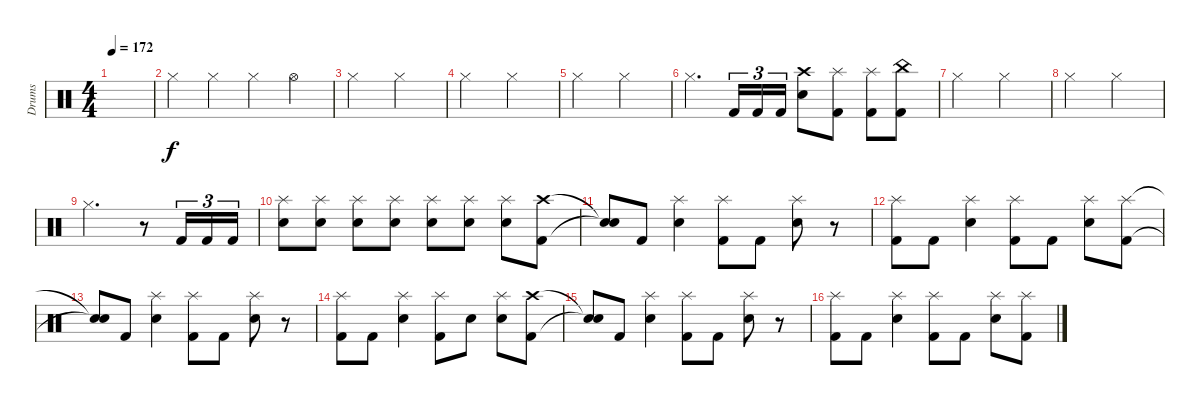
\track ("Drums" "Drums") {instrument percussion}
\staff {score}
\articulation defaults
\ts (4 4)
\tempo 172
\clef neutral
\ks c
|
"Hi-Hat (closed)".4 "Hi-Hat (closed)".4 "Hi-Hat (closed)".4 "Hi-Hat (open)".4 |
"Hi-Hat (closed)".2 "Hi-Hat (closed)".2 |
"Hi-Hat (closed)".2 "Hi-Hat (closed)".2 |
"Hi-Hat (closed)".2 "Hi-Hat (closed)".2 |
"Hi-Hat (closed)".4{d} "Kick (hit) 2".16{tu (3 2)} "Kick (hit) 2".16{tu (3 2)} "Kick (hit) 2".16{tu (3 2)} ("Crash high (hit)" "Electric Snare (hit)").8 ("Splash (hit)" "Kick (hit) 2").8 ("Splash (hit)" "Kick (hit) 2").8 ("China (hit)" "Kick (hit) 2").8 |
"Hi-Hat (closed)".2 "Hi-Hat (closed)".2 |
"Hi-Hat (closed)".2 "Hi-Hat (closed)".2 |
"Hi-Hat (closed)".2{d} r.8 "Kick (hit) 2".16{tu (3 2)} "Kick (hit) 2".16{tu (3 2)} "Kick (hit) 2".16{tu (3 2)} |
("Splash (hit)" "Electric Snare (hit)").8 ("Splash (hit)" "Electric Snare (hit)").8 ("Splash (hit)" "Electric Snare (hit)").8 ("Splash (hit)" "Electric Snare (hit)").8 ("Splash (hit)" "Electric Snare (hit)").8 ("Splash (hit)" "Electric Snare (hit)").8 ("Splash (hit)" "Electric Snare (hit)").8 ("Crash high (hit)" "Kick (hit) 2").8 |
("Snare (hit)"{t} "Snare (hit)"{t}).8 "Kick (hit) 2".8 ("Splash (hit)" "Electric Snare (hit)").4 ("Splash (hit)" "Kick (hit) 2").8 "Kick (hit) 2".8 ("Splash (hit)" "Electric Snare (hit)").8 r.8 |
("Splash (hit)" "Kick (hit) 2").8 "Kick (hit) 2".8 ("Splash (hit)" "Electric Snare (hit)").4 ("Splash (hit)" "Kick (hit) 2").8 "Kick (hit) 2".8 ("Splash (hit)" "Electric Snare (hit)").8 ("Splash (hit)" "Kick (hit) 2").8 |
("Snare (hit)"{t} "Snare (hit)"{t}).8 "Kick (hit) 2".8 ("Splash (hit)" "Electric Snare (hit)").4 ("Splash (hit)" "Kick (hit) 2").8 "Kick (hit) 2".8 ("Splash (hit)" "Electric Snare (hit)").8 r.8 |
("Splash (hit)" "Kick (hit) 2").8 "Kick (hit) 2".8 ("Splash (hit)" "Electric Snare (hit)").4 ("Splash (hit)" "Kick (hit) 2").8 "Electric Snare (hit)".8 ("Splash (hit)" "Electric Snare (hit)").8 ("Crash high (hit)" "Kick (hit) 2").8 |
("Snare (hit)"{t} "Snare (hit)"{t}).8 "Kick (hit) 2".8 ("Splash (hit)" "Electric Snare (hit)").4 ("Splash (hit)" "Kick (hit) 2").8 "Kick (hit) 2".8 ("Splash (hit)" "Electric Snare (hit)").8 r.8 |
("Splash (hit)" "Kick (hit) 2").8 "Kick (hit) 2".8 ("Splash (hit)" "Electric Snare (hit)").4 ("Splash (hit)" "Kick (hit) 2").8 "Kick (hit) 2".8 ("Splash (hit)" "Electric Snare (hit)").8 ("Splash (hit)" "Kick (hit) 2").8
